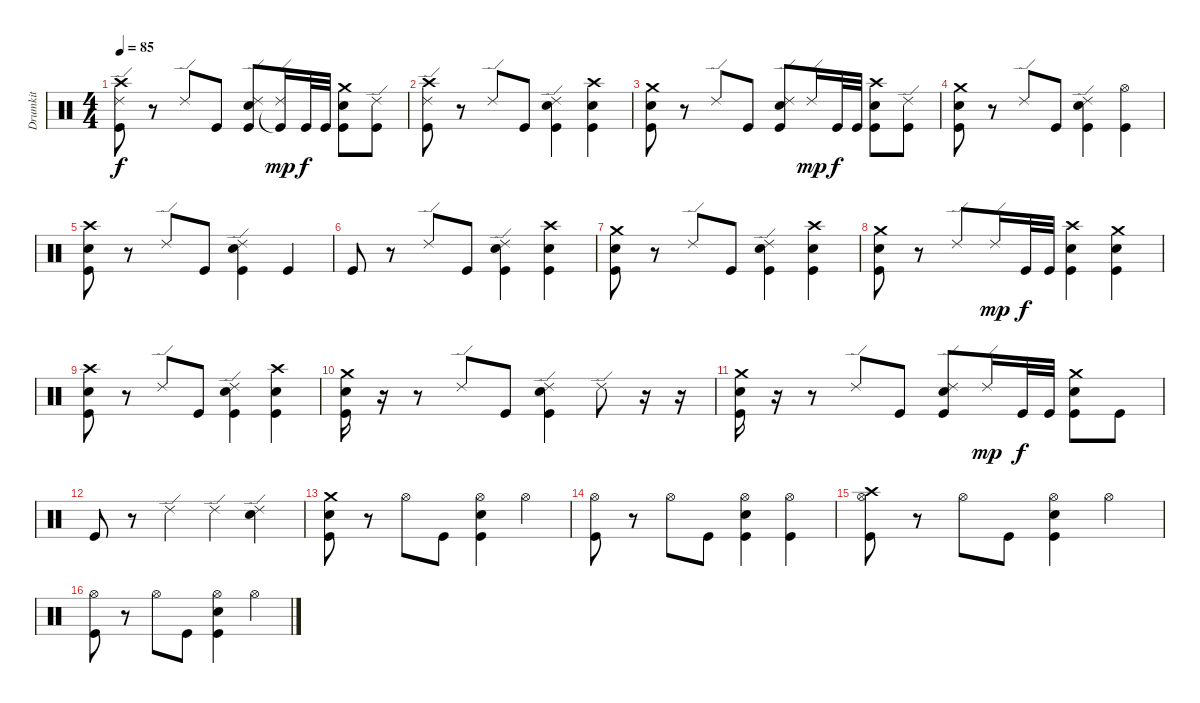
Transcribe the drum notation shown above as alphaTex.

\track ("Drumkit" "Drumkit") {instrument percussion}
\staff {score}
\articulation defaults
\ts (4 4)
\tempo 85
\clef neutral
\ks c
("Crash high (hit)" "Ride (edge) 2" "Kick (hit)").8{dy f} r.8 "Ride (edge) 2".8 "Kick (hit)".8 ("Ride (edge) 2" "Snare (hit) 2" "Kick (hit)").8 ("Ride (edge) 2" "Kick (hit)"{t}).16{dy mp} "Kick (hit)".32{dy f} "Kick (hit)".32 ("Crash medium (hit)" "Snare (hit) 2" "Kick (hit)").8 ("Ride (edge) 2" "Kick (hit)").8 |
("Crash high (hit)" "Ride (edge) 2" "Kick (hit)").8 r.8 "Ride (edge) 2".8 "Kick (hit)".8 ("Ride (edge) 2" "Snare (hit) 2" "Kick (hit)").4 ("Crash high (hit)" "Snare (hit) 2" "Kick (hit)").4 |
("Crash medium (hit)" "Snare (hit) 2" "Kick (hit)").8 r.8 "Ride (edge) 2".8 "Kick (hit)".8 ("Ride (edge) 2" "Snare (hit) 2" "Kick (hit)").8 "Ride (edge) 2".16{dy mp} "Kick (hit)".32{dy f} "Kick (hit)".32 ("Crash high (hit)" "Snare (hit) 2" "Kick (hit)").8 ("Ride (edge) 2" "Kick (hit)").8 |
("Crash medium (hit)" "Snare (hit) 2" "Kick (hit)").8 r.8 "Ride (edge) 2".8 "Kick (hit)".8 ("Ride (edge) 2" "Snare (hit) 2" "Kick (hit)").4 ("Hi-Hat (open)" "Kick (hit)").4 |
("Crash high (hit)" "Snare (hit) 2" "Kick (hit)").8 r.8 "Ride (edge) 2".8 "Kick (hit)".8 ("Ride (edge) 2" "Snare (hit) 2" "Kick (hit)").4 "Kick (hit)".4 |
"Kick (hit)".8 r.8 "Ride (edge) 2".8 "Kick (hit)".8 ("Ride (edge) 2" "Snare (hit) 2" "Kick (hit)").4 ("Crash high (hit)" "Snare (hit) 2" "Kick (hit)").4 |
("Crash medium (hit)" "Snare (hit) 2" "Kick (hit)").8 r.8 "Ride (edge) 2".8 "Kick (hit)".8 ("Ride (edge) 2" "Snare (hit) 2" "Kick (hit)").4 ("Crash high (hit)" "Snare (hit) 2" "Kick (hit)").4 |
("Crash medium (hit)" "Snare (hit) 2" "Kick (hit)").8 r.8 "Ride (edge) 2".8 "Ride (edge) 2".16{dy mp} "Kick (hit)".32{dy f} "Kick (hit)".32 ("Crash high (hit)" "Snare (hit) 2" "Kick (hit)").4 ("Crash medium (hit)" "Snare (hit) 2" "Kick (hit)").4 |
("Crash high (hit)" "Snare (hit) 2" "Kick (hit)").8 r.8 "Ride (edge) 2".8 "Kick (hit)".8 ("Ride (edge) 2" "Snare (hit) 2" "Kick (hit)").4 ("Crash high (hit)" "Snare (hit) 2" "Kick (hit)").4 |
("Crash medium (hit)" "Snare (hit) 2" "Kick (hit)").16 r.16 r.8 "Ride (edge) 2".8 "Kick (hit)".8 ("Ride (edge) 2" "Snare (hit) 2" "Kick (hit)").4 "Ride (edge) 2".8 r.16 r.16 |
("Crash medium (hit)" "Snare (hit) 2" "Kick (hit)").16 r.16 r.8 "Ride (edge) 2".8 "Kick (hit)".8 ("Ride (edge) 2" "Snare (hit) 2" "Kick (hit)").8 "Ride (edge) 2".16{dy mp} "Kick (hit)".32{dy f} "Kick (hit)".32 ("Crash medium (hit)" "Snare (hit) 2" "Kick (hit)").8 "Kick (hit)".8 |
"Kick (hit)".8 r.8 "Ride (edge) 2".4 "Ride (edge) 2".4 ("Ride (edge) 2" "Snare (hit) 2").4 |
("Crash medium (hit)" "Snare (hit) 2" "Kick (hit)").8 r.8 "Hi-Hat (open)".8 "Kick (hit)".8 ("Hi-Hat (open)" "Snare (hit) 2" "Kick (hit)").4 "Hi-Hat (open)".4 |
("Hi-Hat (open)" "Kick (hit)").8 r.8 "Hi-Hat (open)".8 "Kick (hit)".8 ("Hi-Hat (open)" "Snare (hit) 2" "Kick (hit)").4 ("Hi-Hat (open)" "Kick (hit)").4 |
("Crash high (hit)" "Hi-Hat (open)" "Kick (hit)").8 r.8 "Hi-Hat (open)".8 "Kick (hit)".8 ("Hi-Hat (open)" "Snare (hit) 2" "Kick (hit)").4 "Hi-Hat (open)".4 |
("Hi-Hat (open)" "Kick (hit)").8 r.8 "Hi-Hat (open)".8 "Kick (hit)".8 ("Hi-Hat (open)" "Snare (hit) 2" "Kick (hit)").4 "Hi-Hat (open)".4
